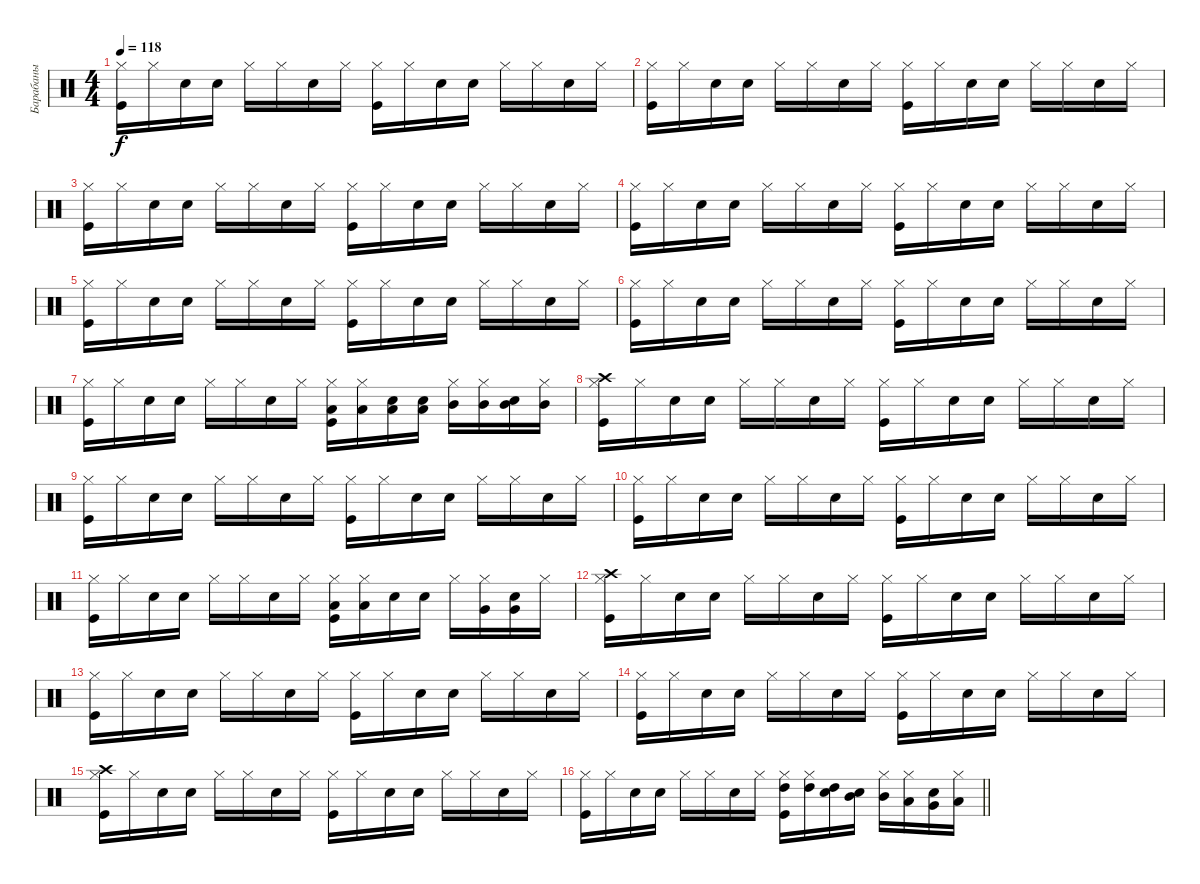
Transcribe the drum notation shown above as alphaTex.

\track ("Барабаны" "Барабаны") {instrument percussion}
\staff {score}
\articulation defaults
\ts (4 4)
\tempo 118
\clef neutral
\ks c
("Kick (hit)" "Hi-Hat (closed)").16{dy f} "Hi-Hat (closed)".16 "Snare (hit) 2".16 "Snare (hit) 2".16 "Hi-Hat (closed)".16 "Hi-Hat (closed)".16 "Snare (hit) 2".16 "Hi-Hat (closed)".16 ("Kick (hit)" "Hi-Hat (closed)").16 "Hi-Hat (closed)".16 "Snare (hit) 2".16 "Snare (hit) 2".16 "Hi-Hat (closed)".16 "Hi-Hat (closed)".16 "Snare (hit) 2".16 "Hi-Hat (closed)".16 |
("Kick (hit)" "Hi-Hat (closed)").16 "Hi-Hat (closed)".16 "Snare (hit) 2".16 "Snare (hit) 2".16 "Hi-Hat (closed)".16 "Hi-Hat (closed)".16 "Snare (hit) 2".16 "Hi-Hat (closed)".16 ("Kick (hit)" "Hi-Hat (closed)").16 "Hi-Hat (closed)".16 "Snare (hit) 2".16 "Snare (hit) 2".16 "Hi-Hat (closed)".16 "Hi-Hat (closed)".16 "Snare (hit) 2".16 "Hi-Hat (closed)".16 |
("Kick (hit)" "Hi-Hat (closed)").16 "Hi-Hat (closed)".16 "Snare (hit) 2".16 "Snare (hit) 2".16 "Hi-Hat (closed)".16 "Hi-Hat (closed)".16 "Snare (hit) 2".16 "Hi-Hat (closed)".16 ("Kick (hit)" "Hi-Hat (closed)").16 "Hi-Hat (closed)".16 "Snare (hit) 2".16 "Snare (hit) 2".16 "Hi-Hat (closed)".16 "Hi-Hat (closed)".16 "Snare (hit) 2".16 "Hi-Hat (closed)".16 |
("Kick (hit)" "Hi-Hat (closed)").16 "Hi-Hat (closed)".16 "Snare (hit) 2".16 "Snare (hit) 2".16 "Hi-Hat (closed)".16 "Hi-Hat (closed)".16 "Snare (hit) 2".16 "Hi-Hat (closed)".16 ("Kick (hit)" "Hi-Hat (closed)").16 "Hi-Hat (closed)".16 "Snare (hit) 2".16 "Snare (hit) 2".16 "Hi-Hat (closed)".16 "Hi-Hat (closed)".16 "Snare (hit) 2".16 "Hi-Hat (closed)".16 |
("Kick (hit)" "Hi-Hat (closed)").16 "Hi-Hat (closed)".16 "Snare (hit) 2".16 "Snare (hit) 2".16 "Hi-Hat (closed)".16 "Hi-Hat (closed)".16 "Snare (hit) 2".16 "Hi-Hat (closed)".16 ("Kick (hit)" "Hi-Hat (closed)").16 "Hi-Hat (closed)".16 "Snare (hit) 2".16 "Snare (hit) 2".16 "Hi-Hat (closed)".16 "Hi-Hat (closed)".16 "Snare (hit) 2".16 "Hi-Hat (closed)".16 |
("Kick (hit)" "Hi-Hat (closed)").16 "Hi-Hat (closed)".16 "Snare (hit) 2".16 "Snare (hit) 2".16 "Hi-Hat (closed)".16 "Hi-Hat (closed)".16 "Snare (hit) 2".16 "Hi-Hat (closed)".16 ("Kick (hit)" "Hi-Hat (closed)").16 "Hi-Hat (closed)".16 "Snare (hit) 2".16 "Snare (hit) 2".16 "Hi-Hat (closed)".16 "Hi-Hat (closed)".16 "Snare (hit) 2".16 "Hi-Hat (closed)".16 |
("Kick (hit)" "Hi-Hat (closed)").16 "Hi-Hat (closed)".16 "Snare (hit) 2".16 "Snare (hit) 2".16 "Hi-Hat (closed)".16 "Hi-Hat (closed)".16 "Snare (hit) 2".16 "Hi-Hat (closed)".16 ("Kick (hit)" "Hi-Hat (closed)" "Low Tom (hit)").16 ("Hi-Hat (closed)" "Low Tom (hit)").16 ("Snare (hit) 2" "Low Tom (hit)").16 ("Snare (hit) 2" "Low Tom (hit)").16 ("Hi-Hat (closed)" "Mid Tom (hit)").16 ("Hi-Hat (closed)" "Mid Tom (hit)").16 ("Snare (hit) 2" "Mid Tom (hit)").16 ("Hi-Hat (closed)" "Mid Tom (hit)").16 |
("Kick (hit)" "Hi-Hat (closed)" "Crash high (hit)").16 "Hi-Hat (closed)".16 "Snare (hit) 2".16 "Snare (hit) 2".16 "Hi-Hat (closed)".16 "Hi-Hat (closed)".16 "Snare (hit) 2".16 "Hi-Hat (closed)".16 ("Kick (hit)" "Hi-Hat (closed)").16 "Hi-Hat (closed)".16 "Snare (hit) 2".16 "Snare (hit) 2".16 "Hi-Hat (closed)".16 "Hi-Hat (closed)".16 "Snare (hit) 2".16 "Hi-Hat (closed)".16 |
("Kick (hit)" "Hi-Hat (closed)").16 "Hi-Hat (closed)".16 "Snare (hit) 2".16 "Snare (hit) 2".16 "Hi-Hat (closed)".16 "Hi-Hat (closed)".16 "Snare (hit) 2".16 "Hi-Hat (closed)".16 ("Kick (hit)" "Hi-Hat (closed)").16 "Hi-Hat (closed)".16 "Snare (hit) 2".16 "Snare (hit) 2".16 "Hi-Hat (closed)".16 "Hi-Hat (closed)".16 "Snare (hit) 2".16 "Hi-Hat (closed)".16 |
("Kick (hit)" "Hi-Hat (closed)").16 "Hi-Hat (closed)".16 "Snare (hit) 2".16 "Snare (hit) 2".16 "Hi-Hat (closed)".16 "Hi-Hat (closed)".16 "Snare (hit) 2".16 "Hi-Hat (closed)".16 ("Kick (hit)" "Hi-Hat (closed)").16 "Hi-Hat (closed)".16 "Snare (hit) 2".16 "Snare (hit) 2".16 "Hi-Hat (closed)".16 "Hi-Hat (closed)".16 "Snare (hit) 2".16 "Hi-Hat (closed)".16 |
("Kick (hit)" "Hi-Hat (closed)").16 "Hi-Hat (closed)".16 "Snare (hit) 2".16 "Snare (hit) 2".16 "Hi-Hat (closed)".16 "Hi-Hat (closed)".16 "Snare (hit) 2".16 "Hi-Hat (closed)".16 ("Kick (hit)" "Hi-Hat (closed)" "Low Tom (hit)").16 ("Hi-Hat (closed)" "Low Tom (hit)").16 "Snare (hit) 2".16 "Snare (hit) 2".16 "Hi-Hat (closed)".16 ("Hi-Hat (closed)" "Very Low Tom (hit)").16 ("Snare (hit) 2" "Very Low Tom (hit)").16 "Hi-Hat (closed)".16 |
("Kick (hit)" "Hi-Hat (closed)" "Crash high (hit)").16 "Hi-Hat (closed)".16 "Snare (hit) 2".16 "Snare (hit) 2".16 "Hi-Hat (closed)".16 "Hi-Hat (closed)".16 "Snare (hit) 2".16 "Hi-Hat (closed)".16 ("Kick (hit)" "Hi-Hat (closed)").16 "Hi-Hat (closed)".16 "Snare (hit) 2".16 "Snare (hit) 2".16 "Hi-Hat (closed)".16 "Hi-Hat (closed)".16 "Snare (hit) 2".16 "Hi-Hat (closed)".16 |
("Kick (hit)" "Hi-Hat (closed)").16 "Hi-Hat (closed)".16 "Snare (hit) 2".16 "Snare (hit) 2".16 "Hi-Hat (closed)".16 "Hi-Hat (closed)".16 "Snare (hit) 2".16 "Hi-Hat (closed)".16 ("Kick (hit)" "Hi-Hat (closed)").16 "Hi-Hat (closed)".16 "Snare (hit) 2".16 "Snare (hit) 2".16 "Hi-Hat (closed)".16 "Hi-Hat (closed)".16 "Snare (hit) 2".16 "Hi-Hat (closed)".16 |
("Kick (hit)" "Hi-Hat (closed)").16 "Hi-Hat (closed)".16 "Snare (hit) 2".16 "Snare (hit) 2".16 "Hi-Hat (closed)".16 "Hi-Hat (closed)".16 "Snare (hit) 2".16 "Hi-Hat (closed)".16 ("Kick (hit)" "Hi-Hat (closed)").16 "Hi-Hat (closed)".16 "Snare (hit) 2".16 "Snare (hit) 2".16 "Hi-Hat (closed)".16 "Hi-Hat (closed)".16 "Snare (hit) 2".16 "Hi-Hat (closed)".16 |
("Kick (hit)" "Hi-Hat (closed)" "Crash high (hit)").16 "Hi-Hat (closed)".16 "Snare (hit) 2".16 "Snare (hit) 2".16 "Hi-Hat (closed)".16 "Hi-Hat (closed)".16 "Snare (hit) 2".16 "Hi-Hat (closed)".16 ("Kick (hit)" "Hi-Hat (closed)").16 "Hi-Hat (closed)".16 "Snare (hit) 2".16 "Snare (hit) 2".16 "Hi-Hat (closed)".16 "Hi-Hat (closed)".16 "Snare (hit) 2".16 "Hi-Hat (closed)".16 |
\barLineRight lightlight
("Kick (hit)" "Hi-Hat (closed)").16 "Hi-Hat (closed)".16 "Snare (hit) 2".16 "Snare (hit) 2".16 "Hi-Hat (closed)".16 "Hi-Hat (closed)".16 "Snare (hit) 2".16 "Hi-Hat (closed)".16 ("Kick (hit)" "Hi-Hat (closed)" "High Tom (hit)").16 ("Hi-Hat (closed)" "High Tom (hit)").16 ("Snare (hit) 2" "High Tom (hit)").16 ("Snare (hit) 2" "Mid Tom (hit)").16 ("Hi-Hat (closed)" "Mid Tom (hit)").16 ("Hi-Hat (closed)" "Low Tom (hit)").16 ("Snare (hit) 2" "Very Low Tom (hit)").16 ("Hi-Hat (closed)" "Low Floor Tom (hit)").16
